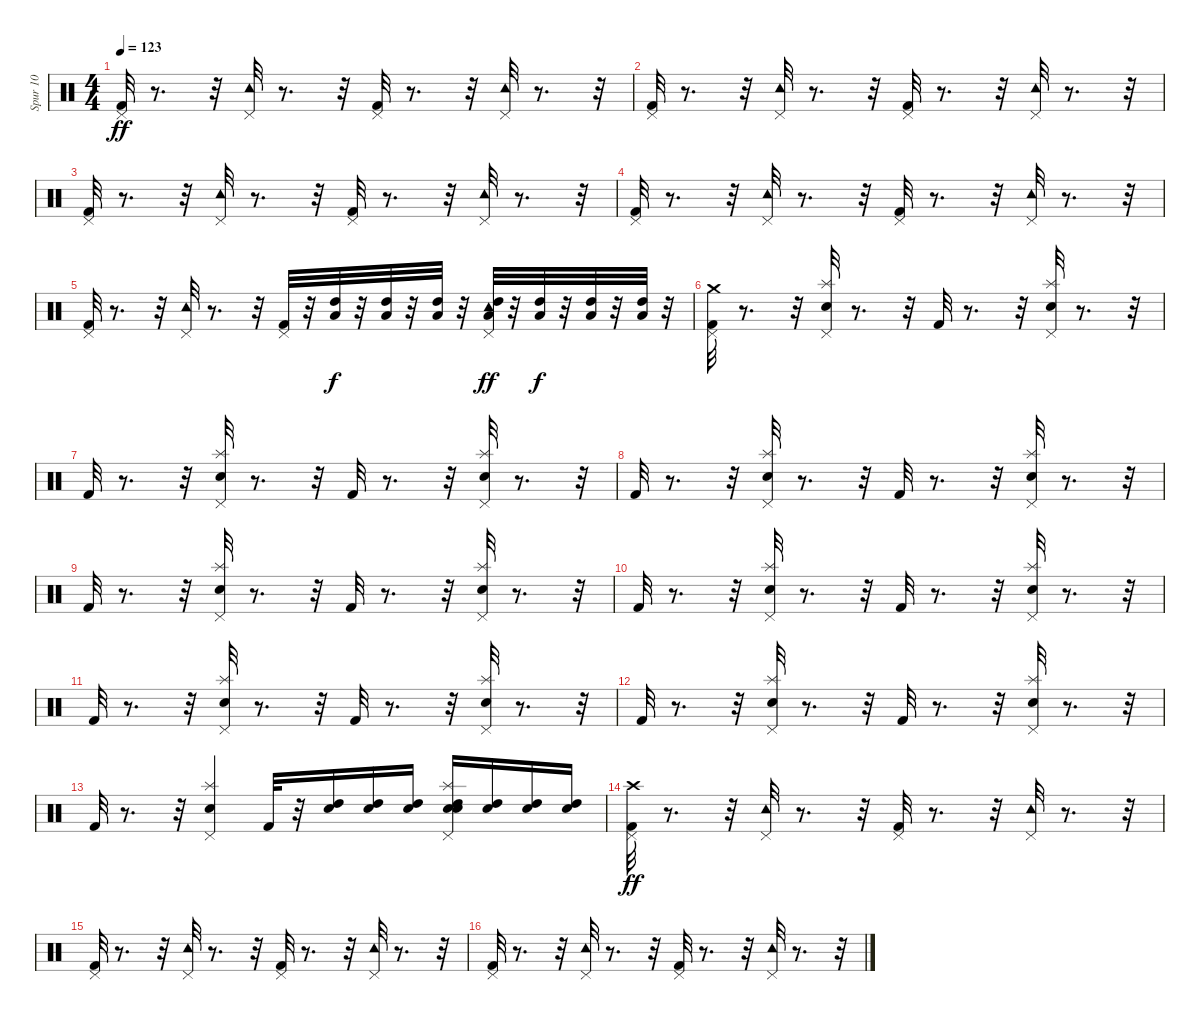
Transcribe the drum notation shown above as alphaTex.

\track ("Spur 10" "Spur 10") {instrument percussion}
\staff {score}
\articulation defaults
\ts (4 4)
\tempo 123
\clef neutral
\ks c
("Kick (hit) 2" "Pedal Hi-Hat (hit)").32{dy ff} r.8{d} r.32 ("Tambourine (hit)" "Pedal Hi-Hat (hit)").32 r.8{d} r.32 ("Kick (hit) 2" "Pedal Hi-Hat (hit)").32 r.8{d} r.32 ("Tambourine (hit)" "Pedal Hi-Hat (hit)").32 r.8{d} r.32 |
("Kick (hit) 2" "Pedal Hi-Hat (hit)").32 r.8{d} r.32 ("Tambourine (hit)" "Pedal Hi-Hat (hit)").32 r.8{d} r.32 ("Kick (hit) 2" "Pedal Hi-Hat (hit)").32 r.8{d} r.32 ("Tambourine (hit)" "Pedal Hi-Hat (hit)").32 r.8{d} r.32 |
("Kick (hit) 2" "Pedal Hi-Hat (hit)").32 r.8{d} r.32 ("Tambourine (hit)" "Pedal Hi-Hat (hit)").32 r.8{d} r.32 ("Kick (hit) 2" "Pedal Hi-Hat (hit)").32 r.8{d} r.32 ("Tambourine (hit)" "Pedal Hi-Hat (hit)").32 r.8{d} r.32 |
("Kick (hit) 2" "Pedal Hi-Hat (hit)").32 r.8{d} r.32 ("Tambourine (hit)" "Pedal Hi-Hat (hit)").32 r.8{d} r.32 ("Kick (hit) 2" "Pedal Hi-Hat (hit)").32 r.8{d} r.32 ("Tambourine (hit)" "Pedal Hi-Hat (hit)").32 r.8{d} r.32 |
("Kick (hit) 2" "Pedal Hi-Hat (hit)").32 r.8{d} r.32 ("Tambourine (hit)" "Pedal Hi-Hat (hit)").32 r.8{d} r.32 ("Kick (hit) 2" "Pedal Hi-Hat (hit)").32 r.32 ("High Tom (hit)" "Low Floor Tom (hit)").32{dy f} r.32 ("High Tom (hit)" "Low Floor Tom (hit)").32 r.32 ("High Tom (hit)" "Low Floor Tom (hit)").32 r.32 ("High Tom (hit)" "Low Floor Tom (hit)" "Tambourine (hit)" "Pedal Hi-Hat (hit)").32{dy ff} r.32 ("High Tom (hit)" "Low Floor Tom (hit)").32{dy f} r.32 ("High Tom (hit)" "Low Floor Tom (hit)").32 r.32 ("High Tom (hit)" "Low Floor Tom (hit)").32 r.32 |
("Kick (hit) 2" "Crash medium (hit)" "Pedal Hi-Hat (hit)").32 r.8{d} r.32 ("Splash (hit)" "Pedal Hi-Hat (hit)" "Snare (hit) 2").32 r.8{d} r.32 "Kick (hit) 2".32 r.8{d} r.32 ("Snare (hit) 2" "Pedal Hi-Hat (hit)" "Splash (hit)").32 r.8{d} r.32 |
"Kick (hit) 2".32 r.8{d} r.32 ("Snare (hit) 2" "Pedal Hi-Hat (hit)" "Splash (hit)").32 r.8{d} r.32 "Kick (hit) 2".32 r.8{d} r.32 ("Snare (hit) 2" "Pedal Hi-Hat (hit)" "Splash (hit)").32 r.8{d} r.32 |
"Kick (hit) 2".32 r.8{d} r.32 ("Snare (hit) 2" "Pedal Hi-Hat (hit)" "Splash (hit)").32 r.8{d} r.32 "Kick (hit) 2".32 r.8{d} r.32 ("Snare (hit) 2" "Pedal Hi-Hat (hit)" "Splash (hit)").32 r.8{d} r.32 |
"Kick (hit) 2".32 r.8{d} r.32 ("Snare (hit) 2" "Pedal Hi-Hat (hit)" "Splash (hit)").32 r.8{d} r.32 "Kick (hit) 2".32 r.8{d} r.32 ("Snare (hit) 2" "Pedal Hi-Hat (hit)" "Splash (hit)").32 r.8{d} r.32 |
"Kick (hit) 2".32 r.8{d} r.32 ("Snare (hit) 2" "Pedal Hi-Hat (hit)" "Splash (hit)").32 r.8{d} r.32 "Kick (hit) 2".32 r.8{d} r.32 ("Snare (hit) 2" "Pedal Hi-Hat (hit)" "Splash (hit)").32 r.8{d} r.32 |
"Kick (hit) 2".32 r.8{d} r.32 ("Snare (hit) 2" "Pedal Hi-Hat (hit)" "Splash (hit)").32 r.8{d} r.32 "Kick (hit) 2".32 r.8{d} r.32 ("Snare (hit) 2" "Pedal Hi-Hat (hit)" "Splash (hit)").32 r.8{d} r.32 |
"Kick (hit) 2".32 r.8{d} r.32 ("Snare (hit) 2" "Pedal Hi-Hat (hit)" "Splash (hit)").32 r.8{d} r.32 "Kick (hit) 2".32 r.8{d} r.32 ("Snare (hit) 2" "Pedal Hi-Hat (hit)" "Splash (hit)").32 r.8{d} r.32 |
"Kick (hit) 2".32 r.8{d} r.32 ("Snare (hit) 2" "Pedal Hi-Hat (hit)" "Splash (hit)").4 "Kick (hit) 2".32 r.32 ("Snare (hit) 2" "High Tom (hit)").16 ("Snare (hit) 2" "High Tom (hit)").16 ("Snare (hit) 2" "High Tom (hit)").16 ("High Tom (hit)" "Snare (hit) 2" "Snare (hit) 2" "Pedal Hi-Hat (hit)" "Splash (hit)").16 ("High Tom (hit)" "Snare (hit) 2").16 ("High Tom (hit)" "Snare (hit) 2").16 ("High Tom (hit)" "Snare (hit) 2").16 |
("Kick (hit) 2" "Crash high (hit)" "Pedal Hi-Hat (hit)").32{dy ff} r.8{d} r.32 ("Tambourine (hit)" "Pedal Hi-Hat (hit)").32 r.8{d} r.32 ("Kick (hit) 2" "Pedal Hi-Hat (hit)").32 r.8{d} r.32 ("Tambourine (hit)" "Pedal Hi-Hat (hit)").32 r.8{d} r.32 |
("Kick (hit) 2" "Pedal Hi-Hat (hit)").32 r.8{d} r.32 ("Tambourine (hit)" "Pedal Hi-Hat (hit)").32 r.8{d} r.32 ("Kick (hit) 2" "Pedal Hi-Hat (hit)").32 r.8{d} r.32 ("Tambourine (hit)" "Pedal Hi-Hat (hit)").32 r.8{d} r.32 |
("Kick (hit) 2" "Pedal Hi-Hat (hit)").32 r.8{d} r.32 ("Tambourine (hit)" "Pedal Hi-Hat (hit)").32 r.8{d} r.32 ("Kick (hit) 2" "Pedal Hi-Hat (hit)").32 r.8{d} r.32 ("Tambourine (hit)" "Pedal Hi-Hat (hit)").32 r.8{d} r.32
